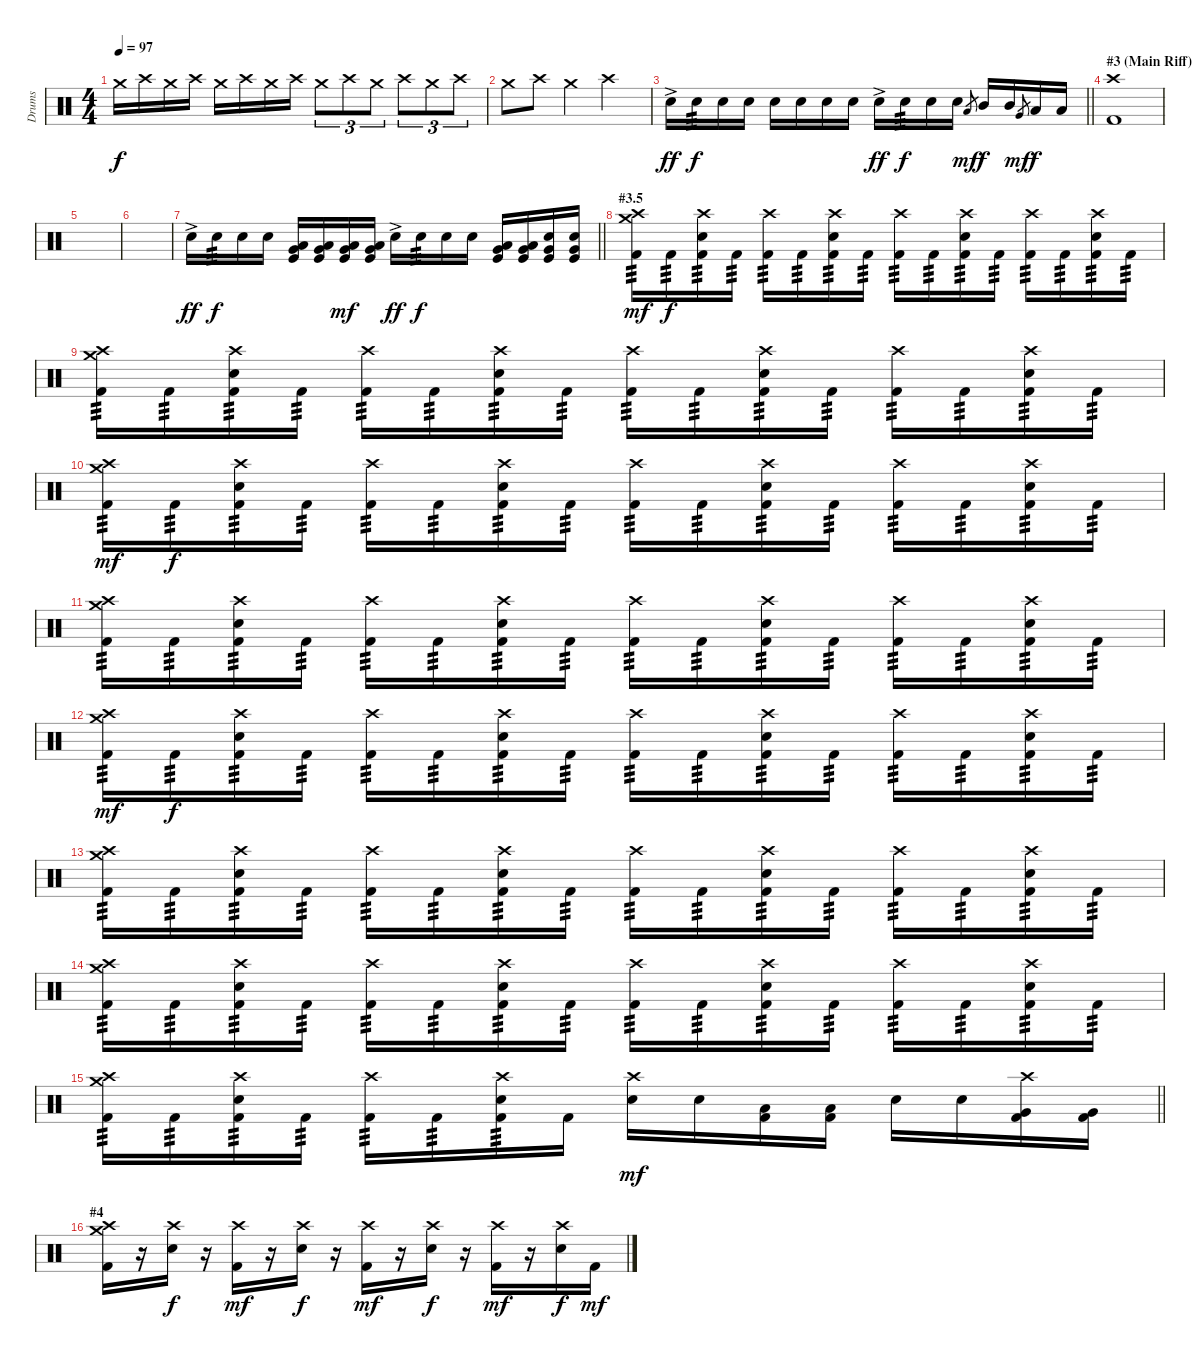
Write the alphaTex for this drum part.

\track ("Drums" "Drums") {instrument percussion}
\staff {score}
\articulation defaults
\ts (4 4)
\tempo 97
\clef neutral
\ks c "Crash medium (hit)".16{dy f} "Crash high (hit)".16 "Crash medium (hit)".16 "Crash high (hit)".16 "Crash medium (hit)".16 "Crash high (hit)".16 "Crash medium (hit)".16 "Crash high (hit)".16 "Crash medium (hit)".8{tu (3 2)} "Crash high (hit)".8{tu (3 2)} "Crash medium (hit)".8{tu (3 2)} "Crash high (hit)".8{tu (3 2)} "Crash medium (hit)".8{tu (3 2)} "Crash high (hit)".8{tu (3 2)}
|
"Crash medium (hit)".8 "Crash high (hit)".8 "Crash medium (hit)".4 "Crash high (hit)".2 |
\barLineRight lightlight "Electric Snare (hit)"{ac}.16{dy ff} "Electric Snare (hit)".16{tp 3 dy f} "Electric Snare (hit)".16 "Electric Snare (hit)".16 "Electric Snare (hit)".16 "Electric Snare (hit)".16 "Electric Snare (hit)".16 "Electric Snare (hit)".16 "Electric Snare (hit)"{ac}.16{dy ff} "Electric Snare (hit)".16{tp 3 dy f} "Electric Snare (hit)".16 "Electric Snare (hit)".16 "Low Tom (hit)".8{gr dy mf} "Mid Tom (hit)".16{dy f} "Mid Tom (hit)".16 "Very Low Tom (hit)".8{gr dy mf} "Low Tom (hit)".16{dy f} "Low Tom (hit)".16
|
\section ("" "#3 (Main Riff)")
("Crash high (hit)" "Kick (hit) 2").1 |
|
|
\barLineRight lightlight "Electric Snare (hit)"{ac}.16{dy ff} "Electric Snare (hit)".16{tp 3 dy f} "Electric Snare (hit)".16 "Electric Snare (hit)".16
("Very Low Tom (hit)" "Low Tom (hit)" "Kick (hit)").16 ("Very Low Tom (hit)" "Low Tom (hit)" "Kick (hit)").16 ("Very Low Tom (hit)" "Low Tom (hit)" "Kick (hit)").16{dy mf} ("Very Low Tom (hit)" "Low Tom (hit)" "Kick (hit)").16 "Electric Snare (hit)"{ac}.16{dy ff} "Electric Snare (hit)".16{tp 3 dy f} "Electric Snare (hit)".16 "Electric Snare (hit)".16 ("Very Low Tom (hit)" "Low Tom (hit)" "Kick (hit)").16 ("Very Low Tom (hit)" "Low Tom (hit)" "Kick (hit)").16 ("Electric Snare (hit)" "Very Low Tom (hit)" "Kick (hit)").16 ("Electric Snare (hit)" "Very Low Tom (hit)" "Kick (hit)").16 |
\section ("" "#3.5")
("Crash high (hit)" "Crash medium (hit)" "Kick (hit) 2").16{tp 3 dy mf} "Kick (hit) 2".16{tp 3 dy f} ("Crash high (hit)" "Electric Snare (hit)" "Kick (hit) 2").16{tp 3} "Kick (hit) 2".16{tp 3} ("Crash high (hit)" "Kick (hit) 2").16{tp 3} "Kick (hit) 2".16{tp 3} ("Crash high (hit)" "Electric Snare (hit)" "Kick (hit) 2").16{tp 3} "Kick (hit) 2".16{tp 3} ("Crash high (hit)" "Kick (hit) 2").16{tp 3} "Kick (hit) 2".16{tp 3} ("Crash high (hit)" "Electric Snare (hit)" "Kick (hit) 2").16{tp 3} "Kick (hit) 2".16{tp 3} ("Crash high (hit)" "Kick (hit) 2").16{tp 3} "Kick (hit) 2".16{tp 3} ("Crash high (hit)" "Electric Snare (hit)" "Kick (hit) 2").16{tp 3} "Kick (hit) 2".16{tp 3} |
("Crash high (hit)" "Crash medium (hit)" "Kick (hit) 2").16{tp 3} "Kick (hit) 2".16{tp 3} ("Crash high (hit)" "Electric Snare (hit)" "Kick (hit) 2").16{tp 3} "Kick (hit) 2".16{tp 3} ("Crash high (hit)" "Kick (hit) 2").16{tp 3} "Kick (hit) 2".16{tp 3} ("Crash high (hit)" "Electric Snare (hit)" "Kick (hit) 2").16{tp 3} "Kick (hit) 2".16{tp 3} ("Crash high (hit)" "Kick (hit) 2").16{tp 3} "Kick (hit) 2".16{tp 3} ("Crash high (hit)" "Electric Snare (hit)" "Kick (hit) 2").16{tp 3} "Kick (hit) 2".16{tp 3} ("Crash high (hit)" "Kick (hit) 2").16{tp 3} "Kick (hit) 2".16{tp 3} ("Crash high (hit)" "Electric Snare (hit)" "Kick (hit) 2").16{tp 3} "Kick (hit) 2".16{tp 3} |
("Crash high (hit)" "Crash medium (hit)" "Kick (hit) 2").16{tp 3 dy mf} "Kick (hit) 2".16{tp 3 dy f} ("Crash high (hit)" "Electric Snare (hit)" "Kick (hit) 2").16{tp 3} "Kick (hit) 2".16{tp 3} ("Crash high (hit)" "Kick (hit) 2").16{tp 3} "Kick (hit) 2".16{tp 3} ("Crash high (hit)" "Electric Snare (hit)" "Kick (hit) 2").16{tp 3} "Kick (hit) 2".16{tp 3} ("Crash high (hit)" "Kick (hit) 2").16{tp 3} "Kick (hit) 2".16{tp 3} ("Crash high (hit)" "Electric Snare (hit)" "Kick (hit) 2").16{tp 3} "Kick (hit) 2".16{tp 3} ("Crash high (hit)" "Kick (hit) 2").16{tp 3} "Kick (hit) 2".16{tp 3} ("Crash high (hit)" "Electric Snare (hit)" "Kick (hit) 2").16{tp 3} "Kick (hit) 2".16{tp 3} |
("Crash high (hit)" "Crash medium (hit)" "Kick (hit) 2").16{tp 3} "Kick (hit) 2".16{tp 3} ("Crash high (hit)" "Electric Snare (hit)" "Kick (hit) 2").16{tp 3} "Kick (hit) 2".16{tp 3} ("Crash high (hit)" "Kick (hit) 2").16{tp 3} "Kick (hit) 2".16{tp 3} ("Crash high (hit)" "Electric Snare (hit)" "Kick (hit) 2").16{tp 3} "Kick (hit) 2".16{tp 3} ("Crash high (hit)" "Kick (hit) 2").16{tp 3} "Kick (hit) 2".16{tp 3} ("Crash high (hit)" "Electric Snare (hit)" "Kick (hit) 2").16{tp 3} "Kick (hit) 2".16{tp 3} ("Crash high (hit)" "Kick (hit) 2").16{tp 3} "Kick (hit) 2".16{tp 3} ("Crash high (hit)" "Electric Snare (hit)" "Kick (hit) 2").16{tp 3} "Kick (hit) 2".16{tp 3} |
("Crash high (hit)" "Crash medium (hit)" "Kick (hit) 2").16{tp 3 dy mf} "Kick (hit) 2".16{tp 3 dy f} ("Crash high (hit)" "Electric Snare (hit)" "Kick (hit) 2").16{tp 3} "Kick (hit) 2".16{tp 3} ("Crash high (hit)" "Kick (hit) 2").16{tp 3} "Kick (hit) 2".16{tp 3} ("Crash high (hit)" "Electric Snare (hit)" "Kick (hit) 2").16{tp 3} "Kick (hit) 2".16{tp 3} ("Crash high (hit)" "Kick (hit) 2").16{tp 3} "Kick (hit) 2".16{tp 3} ("Crash high (hit)" "Electric Snare (hit)" "Kick (hit) 2").16{tp 3} "Kick (hit) 2".16{tp 3} ("Crash high (hit)" "Kick (hit) 2").16{tp 3} "Kick (hit) 2".16{tp 3} ("Crash high (hit)" "Electric Snare (hit)" "Kick (hit) 2").16{tp 3} "Kick (hit) 2".16{tp 3} |
("Crash high (hit)" "Crash medium (hit)" "Kick (hit) 2").16{tp 3} "Kick (hit) 2".16{tp 3} ("Crash high (hit)" "Electric Snare (hit)" "Kick (hit) 2").16{tp 3} "Kick (hit) 2".16{tp 3} ("Crash high (hit)" "Kick (hit) 2").16{tp 3} "Kick (hit) 2".16{tp 3} ("Crash high (hit)" "Electric Snare (hit)" "Kick (hit) 2").16{tp 3} "Kick (hit) 2".16{tp 3} ("Crash high (hit)" "Kick (hit) 2").16{tp 3} "Kick (hit) 2".16{tp 3} ("Crash high (hit)" "Electric Snare (hit)" "Kick (hit) 2").16{tp 3} "Kick (hit) 2".16{tp 3} ("Crash high (hit)" "Kick (hit) 2").16{tp 3} "Kick (hit) 2".16{tp 3} ("Crash high (hit)" "Electric Snare (hit)" "Kick (hit) 2").16{tp 3} "Kick (hit) 2".16{tp 3} |
("Crash high (hit)" "Crash medium (hit)" "Kick (hit) 2").16{tp 3} "Kick (hit) 2".16{tp 3} ("Crash high (hit)" "Electric Snare (hit)" "Kick (hit) 2").16{tp 3} "Kick (hit) 2".16{tp 3} ("Crash high (hit)" "Kick (hit) 2").16{tp 3} "Kick (hit) 2".16{tp 3} ("Crash high (hit)" "Electric Snare (hit)" "Kick (hit) 2").16{tp 3} "Kick (hit) 2".16{tp 3} ("Crash high (hit)" "Kick (hit) 2").16{tp 3} "Kick (hit) 2".16{tp 3} ("Crash high (hit)" "Electric Snare (hit)" "Kick (hit) 2").16{tp 3} "Kick (hit) 2".16{tp 3} ("Crash high (hit)" "Kick (hit) 2").16{tp 3} "Kick (hit) 2".16{tp 3} ("Crash high (hit)" "Electric Snare (hit)" "Kick (hit) 2").16{tp 3} "Kick (hit) 2".16{tp 3} |
\barLineRight lightlight
("Crash high (hit)" "Crash medium (hit)" "Kick (hit) 2").16{tp 3} "Kick (hit) 2".16{tp 3} ("Crash high (hit)" "Electric Snare (hit)" "Kick (hit) 2").16{tp 3} "Kick (hit) 2".16{tp 3} ("Crash high (hit)" "Kick (hit) 2").16{tp 3} "Kick (hit) 2".16{tp 3} ("Crash high (hit)" "Electric Snare (hit)" "Kick (hit) 2").16{tp 3} "Kick (hit) 2".16 ("Crash high (hit)" "Electric Snare (hit)").16{dy mf} "Electric Snare (hit)".16 ("Low Tom (hit)" "Kick (hit) 2").16 ("Low Tom (hit)" "Kick (hit) 2").16 "Electric Snare (hit)".16 "Electric Snare (hit)".16 ("Crash high (hit)" "Very Low Tom (hit)" "Kick (hit) 2").16 ("Very Low Tom (hit)" "Kick (hit) 2").16 |
\section ("" "#4")
("Crash high (hit)" "Crash medium (hit)" "Kick (hit) 2").16 r.16 ("Crash high (hit)" "Electric Snare (hit)").16{dy f} r.16 ("Crash high (hit)" "Kick (hit) 2").16{dy mf} r.16 ("Crash high (hit)" "Electric Snare (hit)").16{dy f} r.16 ("Crash high (hit)" "Kick (hit) 2").16{dy mf} r.16 ("Crash high (hit)" "Electric Snare (hit)").16{dy f} r.16 ("Crash high (hit)" "Kick (hit) 2").16{dy mf} r.16 ("Crash high (hit)" "Electric Snare (hit)").16{dy f} "Kick (hit) 2".16{dy mf}
